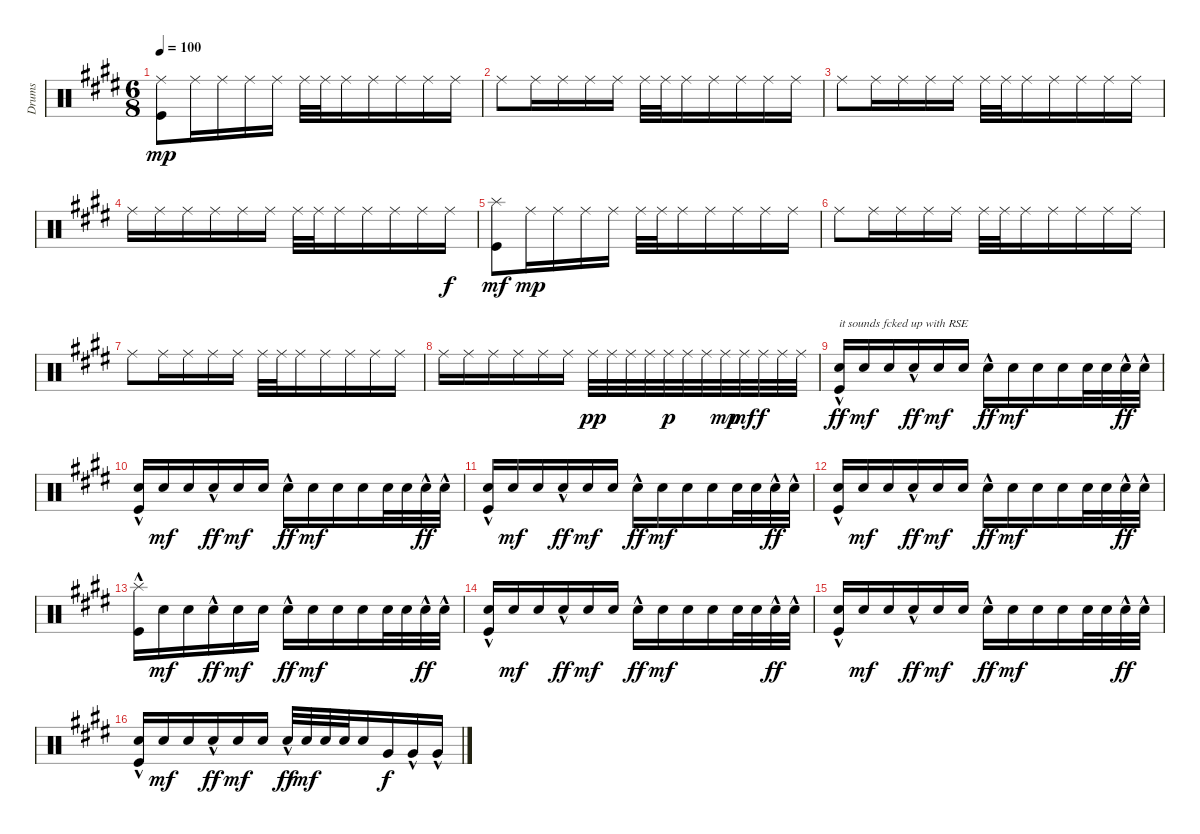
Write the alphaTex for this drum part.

\track ("Drums" "Drums") {instrument percussion}
\staff {score}
\articulation defaults
\ts (6 8)
\tempo 100
\clef neutral
\ks c#minor
("Ride (middle)" "Kick (hit)").8{dy mp} "Ride (middle)".16 "Ride (middle)".16 "Ride (middle)".16 "Ride (middle)".16 "Ride (middle)".32 "Ride (middle)".32 "Ride (middle)".16 "Ride (middle)".16 "Ride (middle)".16 "Ride (middle)".16 "Ride (middle)".16 |
"Ride (middle)".8 "Ride (middle)".16 "Ride (middle)".16 "Ride (middle)".16 "Ride (middle)".16 "Ride (middle)".32 "Ride (middle)".32 "Ride (middle)".16 "Ride (middle)".16 "Ride (middle)".16 "Ride (middle)".16 "Ride (middle)".16 |
"Ride (middle)".8 "Ride (middle)".16 "Ride (middle)".16 "Ride (middle)".16 "Ride (middle)".16 "Ride (middle)".32 "Ride (middle)".32 "Ride (middle)".16 "Ride (middle)".16 "Ride (middle)".16 "Ride (middle)".16 "Ride (middle)".16 |
"Ride (middle)".16 "Ride (middle)".16 "Ride (middle)".16 "Ride (middle)".16 "Ride (middle)".16 "Ride (middle)".16 "Ride (middle)".32 "Ride (middle)".32 "Ride (middle)".16 "Ride (middle)".16 "Ride (middle)".16 "Ride (middle)".16 "Ride (middle)".16{dy f} |
("Splash (hit)" "Kick (hit)").8{dy mf} "Ride (middle)".16{dy mp} "Ride (middle)".16 "Ride (middle)".16 "Ride (middle)".16 "Ride (middle)".32 "Ride (middle)".32 "Ride (middle)".16 "Ride (middle)".16 "Ride (middle)".16 "Ride (middle)".16 "Ride (middle)".16 |
"Ride (middle)".8 "Ride (middle)".16 "Ride (middle)".16 "Ride (middle)".16 "Ride (middle)".16 "Ride (middle)".32 "Ride (middle)".32 "Ride (middle)".16 "Ride (middle)".16 "Ride (middle)".16 "Ride (middle)".16 "Ride (middle)".16 |
"Ride (middle)".8 "Ride (middle)".16 "Ride (middle)".16 "Ride (middle)".16 "Ride (middle)".16 "Ride (middle)".32 "Ride (middle)".32 "Ride (middle)".16 "Ride (middle)".16 "Ride (middle)".16 "Ride (middle)".16 "Ride (middle)".16 |
"Ride (middle)".16 "Ride (middle)".16 "Ride (middle)".16 "Ride (middle)".16 "Ride (middle)".16 "Ride (middle)".16 "Ride (middle)".32{dy pp} "Ride (middle)".32 "Ride (middle)".32 "Ride (middle)".32 "Ride (middle)".32{dy p} "Ride (middle)".32 "Ride (middle)".32 "Ride (middle)".32{dy mp} "Ride (middle)".32{dy mf} "Ride (middle)".32{dy f} "Ride (middle)".32 "Ride (middle)".32 |
("Electric Snare (hit)"{hac} "Kick (hit)").16{txt "it sounds fcked up with RSE" dy ff} "Electric Snare (hit)".16{dy mf} "Electric Snare (hit)".16 "Electric Snare (hit)"{hac}.16{dy ff} "Electric Snare (hit)".16{dy mf} "Electric Snare (hit)".16 "Electric Snare (hit)"{hac}.16{dy ff} "Electric Snare (hit)".16{dy mf} "Electric Snare (hit)".16 "Electric Snare (hit)".16 "Electric Snare (hit)".32 "Electric Snare (hit)".32 "Electric Snare (hit)"{hac}.32{dy ff} "Electric Snare (hit)"{hac}.32 |
("Electric Snare (hit)"{hac} "Kick (hit)").16 "Electric Snare (hit)".16{dy mf} "Electric Snare (hit)".16 "Electric Snare (hit)"{hac}.16{dy ff} "Electric Snare (hit)".16{dy mf} "Electric Snare (hit)".16 "Electric Snare (hit)"{hac}.16{dy ff} "Electric Snare (hit)".16{dy mf} "Electric Snare (hit)".16 "Electric Snare (hit)".16 "Electric Snare (hit)".32 "Electric Snare (hit)".32 "Electric Snare (hit)"{hac}.32{dy ff} "Electric Snare (hit)"{hac}.32 |
("Electric Snare (hit)"{hac} "Kick (hit)").16 "Electric Snare (hit)".16{dy mf} "Electric Snare (hit)".16 "Electric Snare (hit)"{hac}.16{dy ff} "Electric Snare (hit)".16{dy mf} "Electric Snare (hit)".16 "Electric Snare (hit)"{hac}.16{dy ff} "Electric Snare (hit)".16{dy mf} "Electric Snare (hit)".16 "Electric Snare (hit)".16 "Electric Snare (hit)".32 "Electric Snare (hit)".32 "Electric Snare (hit)"{hac}.32{dy ff} "Electric Snare (hit)"{hac}.32 |
("Electric Snare (hit)"{hac} "Kick (hit)").16 "Electric Snare (hit)".16{dy mf} "Electric Snare (hit)".16 "Electric Snare (hit)"{hac}.16{dy ff} "Electric Snare (hit)".16{dy mf} "Electric Snare (hit)".16 "Electric Snare (hit)"{hac}.16{dy ff} "Electric Snare (hit)".16{dy mf} "Electric Snare (hit)".16 "Electric Snare (hit)".16 "Electric Snare (hit)".32 "Electric Snare (hit)".32 "Electric Snare (hit)"{hac}.32{dy ff} "Electric Snare (hit)"{hac}.32 |
("Splash (hit)"{hac} "Kick (hit)").16 "Electric Snare (hit)".16{dy mf} "Electric Snare (hit)".16 "Electric Snare (hit)"{hac}.16{dy ff} "Electric Snare (hit)".16{dy mf} "Electric Snare (hit)".16 "Electric Snare (hit)"{hac}.16{dy ff} "Electric Snare (hit)".16{dy mf} "Electric Snare (hit)".16 "Electric Snare (hit)".16 "Electric Snare (hit)".32 "Electric Snare (hit)".32 "Electric Snare (hit)"{hac}.32{dy ff} "Electric Snare (hit)"{hac}.32 |
("Electric Snare (hit)"{hac} "Kick (hit)").16 "Electric Snare (hit)".16{dy mf} "Electric Snare (hit)".16 "Electric Snare (hit)"{hac}.16{dy ff} "Electric Snare (hit)".16{dy mf} "Electric Snare (hit)".16 "Electric Snare (hit)"{hac}.16{dy ff} "Electric Snare (hit)".16{dy mf} "Electric Snare (hit)".16 "Electric Snare (hit)".16 "Electric Snare (hit)".32 "Electric Snare (hit)".32 "Electric Snare (hit)"{hac}.32{dy ff} "Electric Snare (hit)"{hac}.32 |
("Electric Snare (hit)"{hac} "Kick (hit)").16 "Electric Snare (hit)".16{dy mf} "Electric Snare (hit)".16 "Electric Snare (hit)"{hac}.16{dy ff} "Electric Snare (hit)".16{dy mf} "Electric Snare (hit)".16 "Electric Snare (hit)"{hac}.16{dy ff} "Electric Snare (hit)".16{dy mf} "Electric Snare (hit)".16 "Electric Snare (hit)".16 "Electric Snare (hit)".32 "Electric Snare (hit)".32 "Electric Snare (hit)"{hac}.32{dy ff} "Electric Snare (hit)"{hac}.32 |
("Electric Snare (hit)"{hac} "Kick (hit)").16 "Electric Snare (hit)".16{dy mf} "Electric Snare (hit)".16 "Electric Snare (hit)"{hac}.16{dy ff} "Electric Snare (hit)".16{dy mf} "Electric Snare (hit)".16 "Electric Snare (hit)"{hac}.32{dy ff} "Electric Snare (hit)".32{dy mf} "Electric Snare (hit)".32 "Electric Snare (hit)".32 "Electric Snare (hit)".16 "Very Low Tom (hit)".16{dy f} "Very Low Tom (hit)"{hac}.16 "Very Low Tom (hit)"{hac}.16
